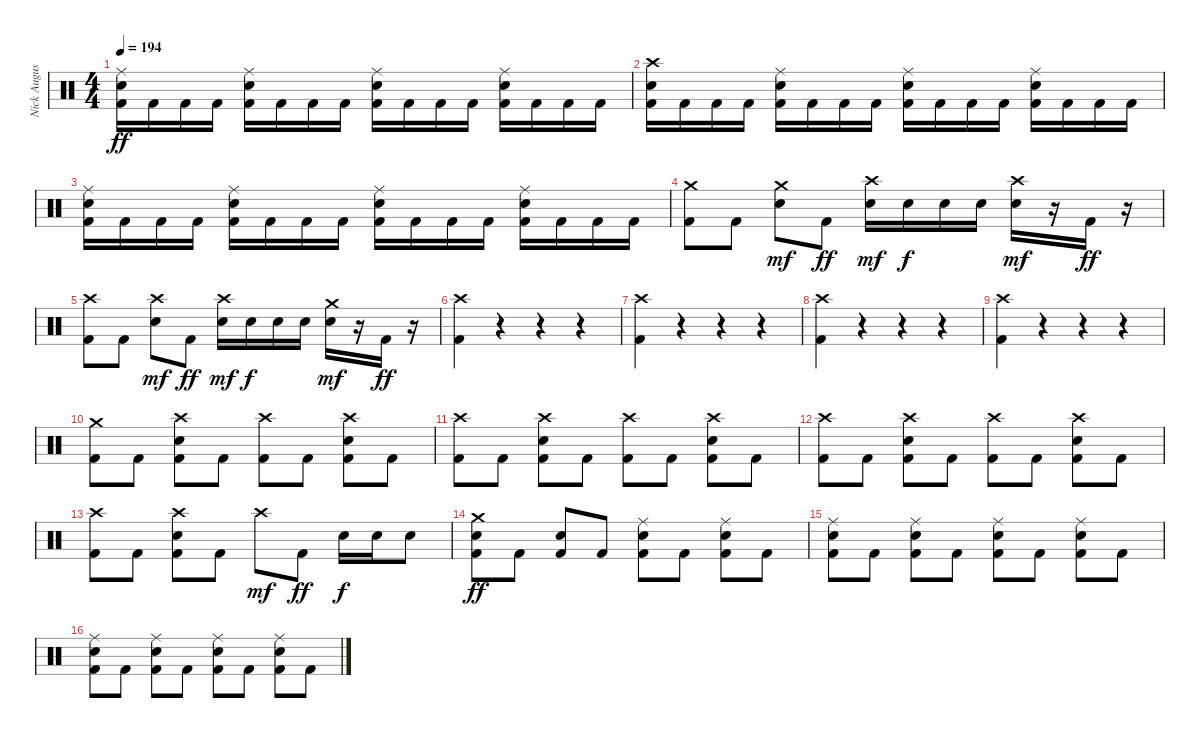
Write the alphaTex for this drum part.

\track ("Nick Augusto" "Nick Augus") {instrument percussion}
\staff {score}
\articulation defaults
\ts (4 4)
\tempo 194
\clef neutral
\ks c
("Ride (middle)" "Electric Snare (hit)" "Kick (hit) 2").16{dy ff} "Kick (hit) 2".16 "Kick (hit) 2".16 "Kick (hit) 2".16 ("Ride (middle)" "Electric Snare (hit)" "Kick (hit) 2").16 "Kick (hit) 2".16 "Kick (hit) 2".16 "Kick (hit) 2".16 ("Ride (middle)" "Electric Snare (hit)" "Kick (hit) 2").16 "Kick (hit) 2".16 "Kick (hit) 2".16 "Kick (hit) 2".16 ("Ride (middle)" "Electric Snare (hit)" "Kick (hit) 2").16 "Kick (hit) 2".16 "Kick (hit) 2".16 "Kick (hit) 2".16 |
("Crash high (hit)" "Electric Snare (hit)" "Kick (hit) 2").16 "Kick (hit) 2".16 "Kick (hit) 2".16 "Kick (hit) 2".16 ("Ride (middle)" "Electric Snare (hit)" "Kick (hit) 2").16 "Kick (hit) 2".16 "Kick (hit) 2".16 "Kick (hit) 2".16 ("Ride (middle)" "Electric Snare (hit)" "Kick (hit) 2").16 "Kick (hit) 2".16 "Kick (hit) 2".16 "Kick (hit) 2".16 ("Ride (middle)" "Electric Snare (hit)" "Kick (hit) 2").16 "Kick (hit) 2".16 "Kick (hit) 2".16 "Kick (hit) 2".16 |
("Ride (middle)" "Electric Snare (hit)" "Kick (hit) 2").16 "Kick (hit) 2".16 "Kick (hit) 2".16 "Kick (hit) 2".16 ("Ride (middle)" "Electric Snare (hit)" "Kick (hit) 2").16 "Kick (hit) 2".16 "Kick (hit) 2".16 "Kick (hit) 2".16 ("Ride (middle)" "Electric Snare (hit)" "Kick (hit) 2").16 "Kick (hit) 2".16 "Kick (hit) 2".16 "Kick (hit) 2".16 ("Ride (middle)" "Electric Snare (hit)" "Kick (hit) 2").16 "Kick (hit) 2".16 "Kick (hit) 2".16 "Kick (hit) 2".16 |
("Crash medium (hit)" "Kick (hit) 2").8 "Kick (hit) 2".8 ("Crash medium (hit)" "Electric Snare (hit)").8{dy mf} "Kick (hit) 2".8{dy ff} ("Crash high (hit)" "Electric Snare (hit)").16{dy mf} "Electric Snare (hit)".16{dy f} "Electric Snare (hit)".16 "Electric Snare (hit)".16 ("Crash high (hit)" "Electric Snare (hit)").16{dy mf} r.16 "Kick (hit) 2".16{dy ff} r.16 |
("Crash high (hit)" "Kick (hit) 2").8 "Kick (hit) 2".8 ("Crash high (hit)" "Electric Snare (hit)").8{dy mf} "Kick (hit) 2".8{dy ff} ("Crash high (hit)" "Electric Snare (hit)").16{dy mf} "Electric Snare (hit)".16{dy f} "Electric Snare (hit)".16 "Electric Snare (hit)".16 ("Crash medium (hit)" "Electric Snare (hit)").16{dy mf} r.16 "Kick (hit) 2".16{dy ff} r.16 |
("Crash high (hit)" "Kick (hit) 2").4 r.4 r.4 r.4 |
("Crash high (hit)" "Kick (hit) 2").4 r.4 r.4 r.4 |
("Crash high (hit)" "Kick (hit) 2").4 r.4 r.4 r.4 |
("Crash high (hit)" "Kick (hit) 2").4 r.4 r.4 r.4 |
("Crash medium (hit)" "Kick (hit) 2").8 "Kick (hit) 2".8 ("Crash high (hit)" "Electric Snare (hit)" "Kick (hit) 2").8 "Kick (hit) 2".8 ("Crash high (hit)" "Kick (hit) 2").8 "Kick (hit) 2".8 ("Crash high (hit)" "Electric Snare (hit)" "Kick (hit) 2").8 "Kick (hit) 2".8 |
("Crash high (hit)" "Kick (hit) 2").8 "Kick (hit) 2".8 ("Crash high (hit)" "Electric Snare (hit)" "Kick (hit) 2").8 "Kick (hit) 2".8 ("Crash high (hit)" "Kick (hit) 2").8 "Kick (hit) 2".8 ("Crash high (hit)" "Electric Snare (hit)" "Kick (hit) 2").8 "Kick (hit) 2".8 |
("Crash high (hit)" "Kick (hit) 2").8 "Kick (hit) 2".8 ("Crash high (hit)" "Electric Snare (hit)" "Kick (hit) 2").8 "Kick (hit) 2".8 ("Crash high (hit)" "Kick (hit) 2").8 "Kick (hit) 2".8 ("Crash high (hit)" "Electric Snare (hit)" "Kick (hit) 2").8 "Kick (hit) 2".8 |
("Crash high (hit)" "Kick (hit) 2").8 "Kick (hit) 2".8 ("Crash high (hit)" "Electric Snare (hit)" "Kick (hit) 2").8 "Kick (hit) 2".8 "Crash high (hit)".8{dy mf} "Kick (hit) 2".8{dy ff} "Electric Snare (hit)".16{dy f} "Electric Snare (hit)".16 "Electric Snare (hit)".8 |
("Crash medium (hit)" "Electric Snare (hit)" "Kick (hit) 2").8{dy ff} "Kick (hit) 2".8 ("Electric Snare (hit)" "Kick (hit) 2").8 "Kick (hit) 2".8 ("Ride (middle)" "Electric Snare (hit)" "Kick (hit) 2").8 "Kick (hit) 2".8 ("Ride (middle)" "Electric Snare (hit)" "Kick (hit) 2").8 "Kick (hit) 2".8 |
("Ride (middle)" "Electric Snare (hit)" "Kick (hit) 2").8 "Kick (hit) 2".8 ("Ride (middle)" "Electric Snare (hit)" "Kick (hit) 2").8 "Kick (hit) 2".8 ("Ride (middle)" "Electric Snare (hit)" "Kick (hit) 2").8 "Kick (hit) 2".8 ("Ride (middle)" "Electric Snare (hit)" "Kick (hit) 2").8 "Kick (hit) 2".8 |
("Ride (middle)" "Electric Snare (hit)" "Kick (hit) 2").8 "Kick (hit) 2".8 ("Ride (middle)" "Electric Snare (hit)" "Kick (hit) 2").8 "Kick (hit) 2".8 ("Ride (middle)" "Electric Snare (hit)" "Kick (hit) 2").8 "Kick (hit) 2".8 ("Ride (middle)" "Electric Snare (hit)" "Kick (hit) 2").8 "Kick (hit) 2".8
